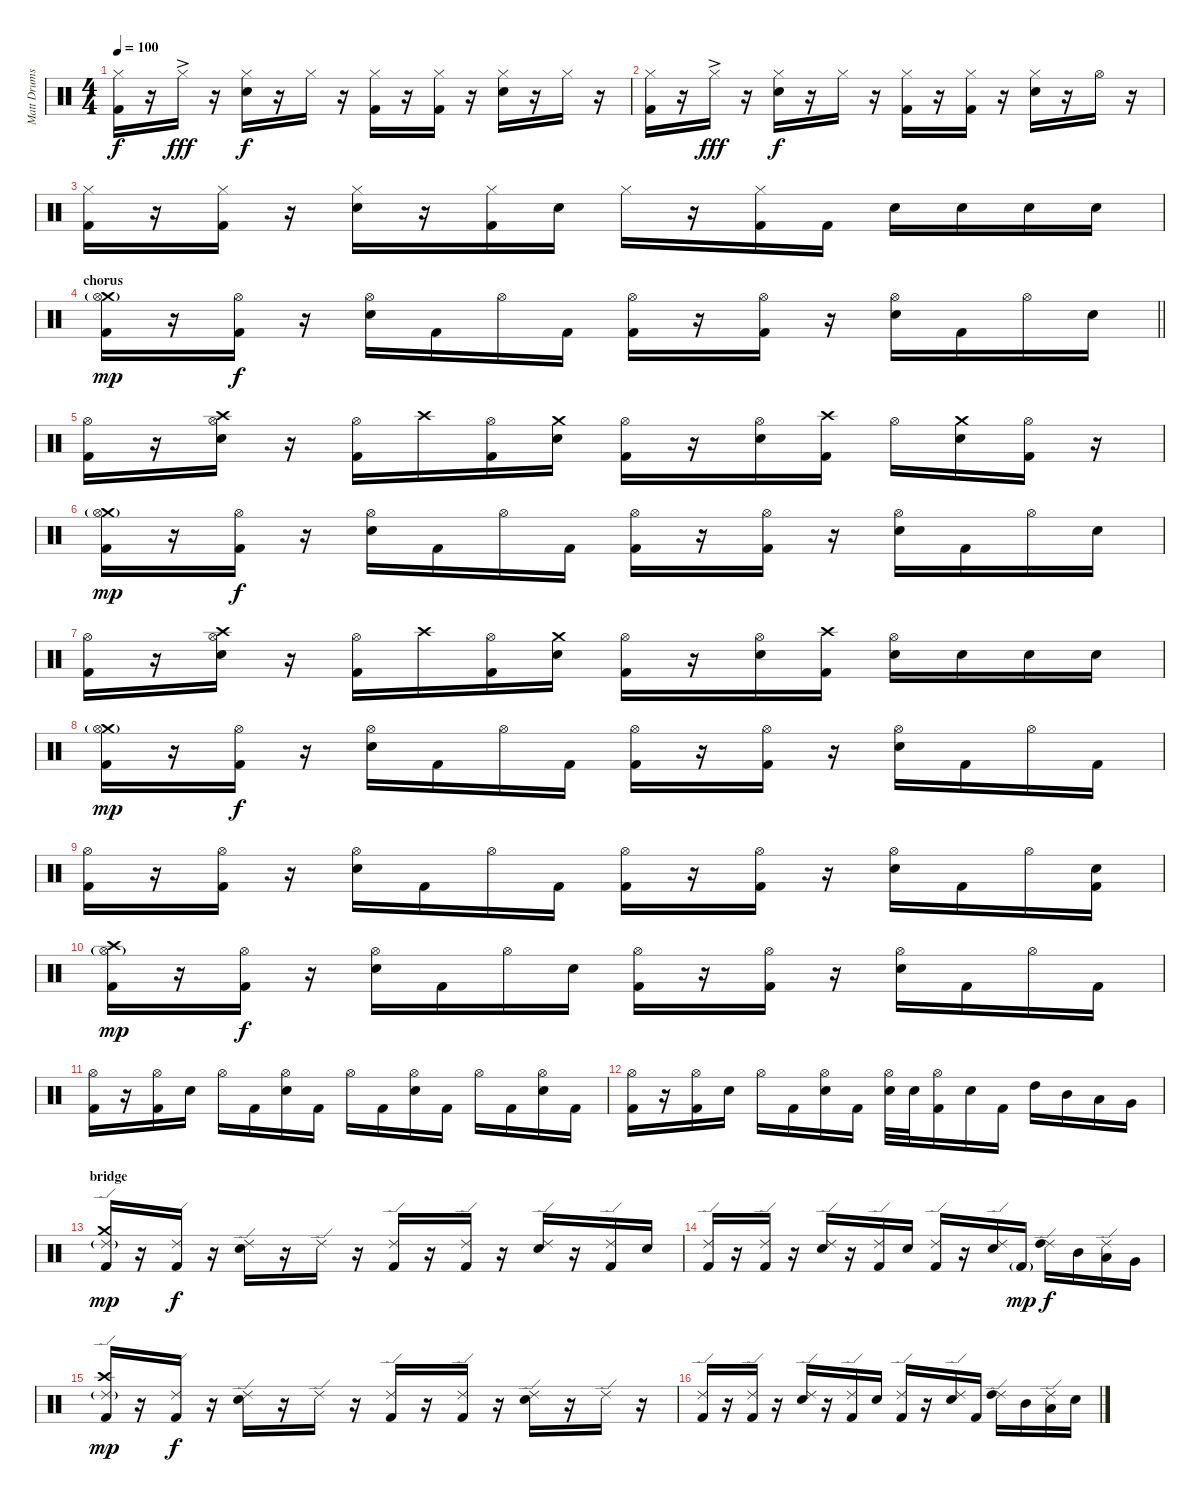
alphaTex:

\track ("Matt Drums" "Matt Drums") {instrument percussion}
\staff {score}
\articulation defaults
\ts (4 4)
\tempo 100
\clef neutral
\ks c
("Hi-Hat (closed)" "Kick (hit) 2").16{dy f} r.16 "Hi-Hat (closed)"{ac}.16{dy fff} r.16 ("Hi-Hat (closed)" "Electric Snare (hit)").16{dy f} r.16 "Hi-Hat (closed)".16 r.16 ("Hi-Hat (closed)" "Kick (hit) 2").16 r.16 ("Hi-Hat (closed)" "Kick (hit) 2").16 r.16 ("Hi-Hat (closed)" "Electric Snare (hit)").16 r.16 "Hi-Hat (closed)".16 r.16 |
("Hi-Hat (closed)" "Kick (hit) 2").16 r.16 "Hi-Hat (closed)"{ac}.16{dy fff} r.16 ("Hi-Hat (closed)" "Electric Snare (hit)").16{dy f} r.16 "Hi-Hat (closed)".16 r.16 ("Hi-Hat (closed)" "Kick (hit) 2").16 r.16 ("Hi-Hat (closed)" "Kick (hit) 2").16 r.16 ("Hi-Hat (closed)" "Electric Snare (hit)").16 r.16 "Hi-Hat (open)".16 r.16 |
("Hi-Hat (closed)" "Kick (hit) 2").16 r.16 ("Hi-Hat (closed)" "Kick (hit) 2").16 r.16 ("Hi-Hat (closed)" "Electric Snare (hit)").16 r.16 ("Hi-Hat (closed)" "Kick (hit) 2").16 "Electric Snare (hit)".16 "Hi-Hat (closed)".16 r.16 ("Hi-Hat (closed)" "Kick (hit) 2").16 "Kick (hit) 2".16 "Electric Snare (hit)".16 "Electric Snare (hit)".16 "Electric Snare (hit)".16 "Electric Snare (hit)".16 |
\section ("" "chorus")
\barLineRight lightlight
("Crash medium (hit)" "Hi-Hat (open)"{g} "Kick (hit) 2").16{dy mp} r.16 ("Hi-Hat (open)" "Kick (hit) 2").16{dy f} r.16 ("Hi-Hat (open)" "Electric Snare (hit)").16 "Kick (hit) 2".16 "Hi-Hat (open)".16 "Kick (hit) 2".16 ("Hi-Hat (open)" "Kick (hit) 2").16 r.16 ("Hi-Hat (open)" "Kick (hit) 2").16 r.16 ("Hi-Hat (open)" "Electric Snare (hit)").16 "Kick (hit) 2".16 "Hi-Hat (open)".16 "Electric Snare (hit)".16 |
("Hi-Hat (open)" "Kick (hit) 2").16 r.16 ("Crash high (hit)" "Hi-Hat (open)" "Electric Snare (hit)").16 r.16 ("Hi-Hat (open)" "Kick (hit) 2").16 "Crash high (hit)".16 ("Hi-Hat (open)" "Kick (hit) 2").16 ("Crash medium (hit)" "Electric Snare (hit)").16 ("Hi-Hat (open)" "Kick (hit) 2").16 r.16 ("Hi-Hat (open)" "Electric Snare (hit)").16 ("Crash high (hit)" "Kick (hit) 2").16 "Hi-Hat (open)".16 ("Crash medium (hit)" "Electric Snare (hit)").16 ("Hi-Hat (open)" "Kick (hit) 2").16 r.16 |
("Crash medium (hit)" "Hi-Hat (open)"{g} "Kick (hit) 2").16{dy mp} r.16 ("Hi-Hat (open)" "Kick (hit) 2").16{dy f} r.16 ("Hi-Hat (open)" "Electric Snare (hit)").16 "Kick (hit) 2".16 "Hi-Hat (open)".16 "Kick (hit) 2".16 ("Hi-Hat (open)" "Kick (hit) 2").16 r.16 ("Hi-Hat (open)" "Kick (hit) 2").16 r.16 ("Hi-Hat (open)" "Electric Snare (hit)").16 "Kick (hit) 2".16 "Hi-Hat (open)".16 "Electric Snare (hit)".16 |
("Hi-Hat (open)" "Kick (hit) 2").16 r.16 ("Crash high (hit)" "Hi-Hat (open)" "Electric Snare (hit)").16 r.16 ("Hi-Hat (open)" "Kick (hit) 2").16 "Crash high (hit)".16 ("Hi-Hat (open)" "Kick (hit) 2").16 ("Crash medium (hit)" "Electric Snare (hit)").16 ("Hi-Hat (open)" "Kick (hit) 2").16 r.16 ("Hi-Hat (open)" "Electric Snare (hit)").16 ("Crash high (hit)" "Kick (hit) 2").16 ("Hi-Hat (open)" "Electric Snare (hit)").16 "Electric Snare (hit)".16 "Electric Snare (hit)".16 "Electric Snare (hit)".16 |
("Crash medium (hit)" "Hi-Hat (open)"{g} "Kick (hit) 2").16{dy mp} r.16 ("Hi-Hat (open)" "Kick (hit) 2").16{dy f} r.16 ("Hi-Hat (open)" "Electric Snare (hit)").16 "Kick (hit) 2".16 "Hi-Hat (open)".16 "Kick (hit) 2".16 ("Hi-Hat (open)" "Kick (hit) 2").16 r.16 ("Hi-Hat (open)" "Kick (hit) 2").16 r.16 ("Hi-Hat (open)" "Electric Snare (hit)").16 "Kick (hit) 2".16 "Hi-Hat (open)".16 "Kick (hit) 2".16 |
("Hi-Hat (open)" "Kick (hit) 2").16 r.16 ("Hi-Hat (open)" "Kick (hit) 2").16 r.16 ("Hi-Hat (open)" "Electric Snare (hit)").16 "Kick (hit) 2".16 "Hi-Hat (open)".16 "Kick (hit) 2".16 ("Hi-Hat (open)" "Kick (hit) 2").16 r.16 ("Hi-Hat (open)" "Kick (hit) 2").16 r.16 ("Hi-Hat (open)" "Electric Snare (hit)").16 "Kick (hit) 2".16 "Hi-Hat (open)".16 ("Electric Snare (hit)" "Kick (hit) 2").16 |
("Crash high (hit)" "Hi-Hat (open)"{g} "Kick (hit) 2").16{dy mp} r.16 ("Hi-Hat (open)" "Kick (hit) 2").16{dy f} r.16 ("Hi-Hat (open)" "Electric Snare (hit)").16 "Kick (hit) 2".16 "Hi-Hat (open)".16 "Electric Snare (hit)".16 ("Hi-Hat (open)" "Kick (hit) 2").16 r.16 ("Hi-Hat (open)" "Kick (hit) 2").16 r.16 ("Hi-Hat (open)" "Electric Snare (hit)").16 "Kick (hit) 2".16 "Hi-Hat (open)".16 "Kick (hit) 2".16 |
("Hi-Hat (open)" "Kick (hit) 2").16 r.16 ("Hi-Hat (open)" "Kick (hit) 2").16 "Electric Snare (hit)".16 "Hi-Hat (open)".16 "Kick (hit) 2".16 ("Hi-Hat (open)" "Electric Snare (hit)").16 "Kick (hit) 2".16 "Hi-Hat (open)".16 "Kick (hit) 2".16 ("Hi-Hat (open)" "Electric Snare (hit)").16 "Kick (hit) 2".16 "Hi-Hat (open)".16 "Kick (hit) 2".16 ("Hi-Hat (open)" "Electric Snare (hit)").16 "Kick (hit) 2".16 |
("Hi-Hat (open)" "Kick (hit) 2").16 r.16 ("Hi-Hat (open)" "Kick (hit) 2").16 "Electric Snare (hit)".16 "Hi-Hat (open)".16 "Kick (hit) 2".16 ("Hi-Hat (open)" "Electric Snare (hit)").16 "Kick (hit) 2".16 ("Hi-Hat (open)" "Electric Snare (hit)").32 "Electric Snare (hit)".32 ("Hi-Hat (open)" "Kick (hit) 2").16 "Electric Snare (hit)".16 "Kick (hit) 2".16 "High Tom (hit)".16 "Mid Tom (hit)".16 "Low Tom (hit)".16 "Very Low Tom (hit)".16 |
\section ("" "bridge")
("Crash medium (hit)" "Ride (edge) 2"{g} "Kick (hit) 2").16{dy mp} r.16 ("Ride (edge) 2" "Kick (hit) 2").16{dy f} r.16 ("Ride (edge) 2" "Electric Snare (hit)").16 r.16 "Ride (edge) 2".16 r.16 ("Ride (edge) 2" "Kick (hit) 2").16 r.16 ("Ride (edge) 2" "Kick (hit) 2").16 r.16 ("Ride (edge) 2" "Electric Snare (hit)").16 r.16 ("Ride (edge) 2" "Kick (hit) 2").16 "Electric Snare (hit)".16 |
("Ride (edge) 2" "Kick (hit) 2").16 r.16 ("Ride (edge) 2" "Kick (hit) 2").16 r.16 ("Ride (edge) 2" "Electric Snare (hit)").16 r.16 ("Ride (edge) 2" "Kick (hit) 2").16 "Electric Snare (hit)".16 ("Ride (edge) 2" "Kick (hit) 2").16 r.16 ("Ride (edge) 2" "Electric Snare (hit)").16 "Kick (hit) 2"{g}.16{dy mp} ("Ride (edge) 2" "High Tom (hit)").16{dy f} "Mid Tom (hit)".16 ("Ride (edge) 2" "Low Tom (hit)").16 "Very Low Tom (hit)".16 |
("Crash high (hit)" "Ride (edge) 2"{g} "Kick (hit) 2").16{dy mp} r.16 ("Ride (edge) 2" "Kick (hit) 2").16{dy f} r.16 ("Ride (edge) 2" "Electric Snare (hit)").16 r.16 "Ride (edge) 2".16 r.16 ("Ride (edge) 2" "Kick (hit) 2").16 r.16 ("Ride (edge) 2" "Kick (hit) 2").16 r.16 ("Ride (edge) 2" "Electric Snare (hit)").16 r.16 "Ride (edge) 2".16 r.16 |
("Ride (edge) 2" "Kick (hit) 2").16 r.16 ("Ride (edge) 2" "Kick (hit) 2").16 r.16 ("Ride (edge) 2" "Electric Snare (hit)").16 r.16 ("Ride (edge) 2" "Kick (hit) 2").16 "Electric Snare (hit)".16 ("Ride (edge) 2" "Kick (hit) 2").16 r.16 ("Ride (edge) 2" "Electric Snare (hit)").16 "Kick (hit) 2".16 ("Ride (edge) 2" "High Tom (hit)").16 "Mid Tom (hit)".16 ("Ride (edge) 2" "Low Tom (hit)").16 "Electric Snare (hit)".16
